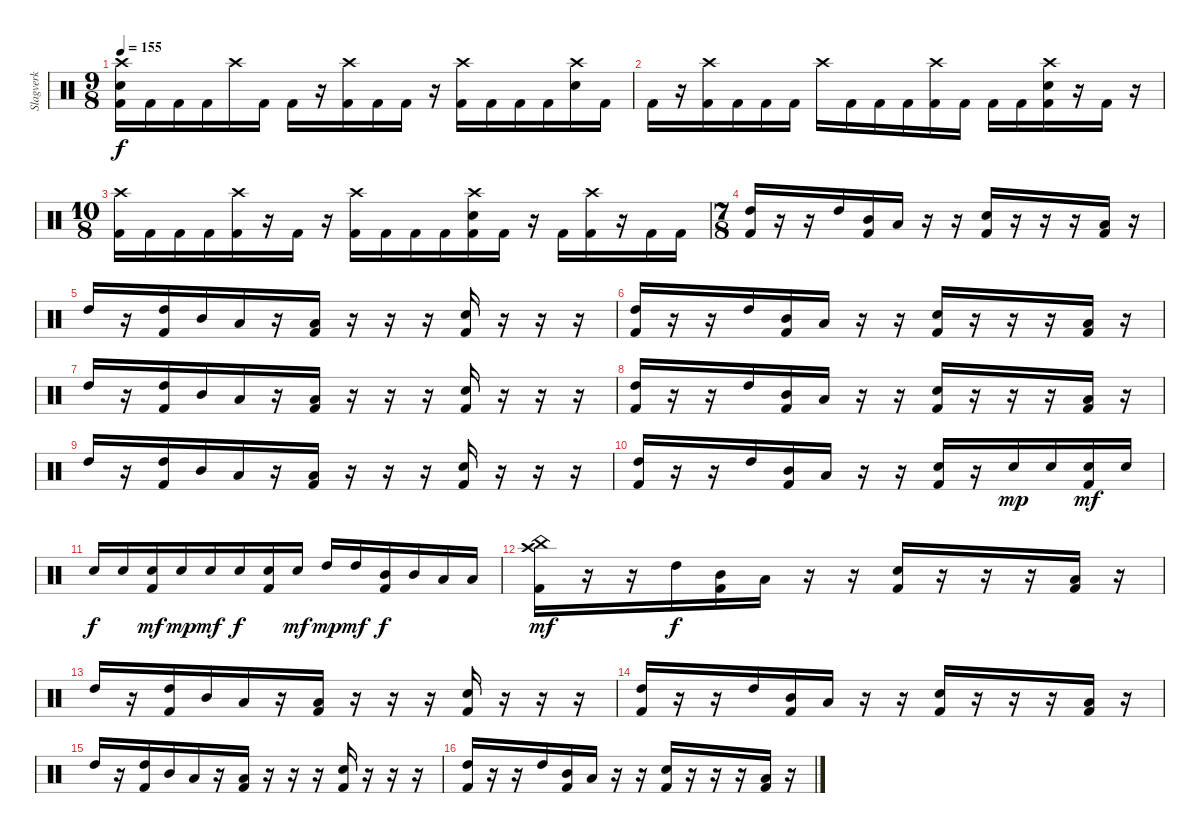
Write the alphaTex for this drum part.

\track ("Slagverk" "Slagverk") {instrument percussion}
\staff {score}
\articulation defaults
\ts (9 8)
\tempo 155
\clef neutral
\ks c
("Kick (hit) 2" "Electric Snare (hit)" "Crash high (hit)").16{dy f} "Kick (hit) 2".16 "Kick (hit) 2".16 "Kick (hit) 2".16 "Crash high (hit)".16 "Kick (hit) 2".16 "Kick (hit) 2".16 r.16 ("Kick (hit) 2" "Crash high (hit)").16 "Kick (hit) 2".16 "Kick (hit) 2".16 r.16 ("Kick (hit) 2" "Crash high (hit)").16 "Kick (hit) 2".16 "Kick (hit) 2".16 "Kick (hit) 2".16 ("Electric Snare (hit)" "Crash high (hit)").16 "Kick (hit) 2".16 |
"Kick (hit) 2".16 r.16 ("Kick (hit) 2" "Crash high (hit)").16 "Kick (hit) 2".16 "Kick (hit) 2".16 "Kick (hit) 2".16 "Crash high (hit)".16 "Kick (hit) 2".16 "Kick (hit) 2".16 "Kick (hit) 2".16 ("Kick (hit) 2" "Crash high (hit)").16 "Kick (hit) 2".16 "Kick (hit) 2".16 "Kick (hit) 2".16 ("Kick (hit) 2" "Electric Snare (hit)" "Crash high (hit)").16 r.16 "Kick (hit) 2".16 r.16 |
\ts (10 8)
("Kick (hit) 2" "Crash high (hit)").16 "Kick (hit) 2".16 "Kick (hit) 2".16 "Kick (hit) 2".16 ("Kick (hit) 2" "Crash high (hit)").16 r.16 "Kick (hit) 2".16 r.16 ("Kick (hit) 2" "Crash high (hit)").16 "Kick (hit) 2".16 "Kick (hit) 2".16 "Kick (hit) 2".16 ("Kick (hit) 2" "Electric Snare (hit)" "Crash high (hit)").16 "Kick (hit) 2".16 r.16 "Kick (hit) 2".16 ("Kick (hit) 2" "Crash high (hit)").16 r.16 "Kick (hit) 2".16 "Kick (hit) 2".16 |
\ts (7 8)
("Kick (hit) 2" "High Tom (hit)").16 r.16 r.16 "High Tom (hit)".16 ("Kick (hit) 2" "Mid Tom (hit)").16 "Low Tom (hit)".16 r.16 r.16 ("Kick (hit) 2" "Electric Snare (hit)").16 r.16 r.16 r.16 ("Kick (hit) 2" "Low Tom (hit)").16 r.16 |
"High Tom (hit)".16 r.16 ("Kick (hit) 2" "High Tom (hit)").16 "Mid Tom (hit)".16 "Low Tom (hit)".16 r.16 ("Kick (hit) 2" "Low Tom (hit)").16 r.16 r.16 r.16 ("Kick (hit) 2" "Electric Snare (hit)").16 r.16 r.16 r.16 |
("Kick (hit) 2" "High Tom (hit)").16 r.16 r.16 "High Tom (hit)".16 ("Kick (hit) 2" "Mid Tom (hit)").16 "Low Tom (hit)".16 r.16 r.16 ("Kick (hit) 2" "Electric Snare (hit)").16 r.16 r.16 r.16 ("Kick (hit) 2" "Low Tom (hit)").16 r.16 |
"High Tom (hit)".16 r.16 ("Kick (hit) 2" "High Tom (hit)").16 "Mid Tom (hit)".16 "Low Tom (hit)".16 r.16 ("Kick (hit) 2" "Low Tom (hit)").16 r.16 r.16 r.16 ("Kick (hit) 2" "Electric Snare (hit)").16 r.16 r.16 r.16 |
("Kick (hit) 2" "High Tom (hit)").16 r.16 r.16 "High Tom (hit)".16 ("Kick (hit) 2" "Mid Tom (hit)").16 "Low Tom (hit)".16 r.16 r.16 ("Kick (hit) 2" "Electric Snare (hit)").16 r.16 r.16 r.16 ("Kick (hit) 2" "Low Tom (hit)").16 r.16 |
"High Tom (hit)".16 r.16 ("Kick (hit) 2" "High Tom (hit)").16 "Mid Tom (hit)".16 "Low Tom (hit)".16 r.16 ("Kick (hit) 2" "Low Tom (hit)").16 r.16 r.16 r.16 ("Kick (hit) 2" "Electric Snare (hit)").16 r.16 r.16 r.16 |
("Kick (hit) 2" "High Tom (hit)").16 r.16 r.16 "High Tom (hit)".16 ("Kick (hit) 2" "Mid Tom (hit)").16 "Low Tom (hit)".16 r.16 r.16 ("Kick (hit) 2" "Electric Snare (hit)").16 r.16 "Electric Snare (hit)".16{dy mp} "Electric Snare (hit)".16 ("Kick (hit) 2" "Electric Snare (hit)").16{dy mf} "Electric Snare (hit)".16 |
"Electric Snare (hit)".16{dy f} "Electric Snare (hit)".16 ("Kick (hit) 2" "Electric Snare (hit)").16{dy mf} "Electric Snare (hit)".16{dy mp} "Electric Snare (hit)".16{dy mf} "Electric Snare (hit)".16{dy f} ("Kick (hit) 2" "Electric Snare (hit)").16 "Electric Snare (hit)".16{dy mf} "High Tom (hit)".16{dy mp} "High Tom (hit)".16{dy mf} ("Kick (hit) 2" "Mid Tom (hit)").16{dy f} "Mid Tom (hit)".16 "Low Tom (hit)".16 "Low Tom (hit)".16 |
("Kick (hit) 2" "China (hit)" "Crash high (hit)").16{dy mf} r.16 r.16 "High Tom (hit)".16{dy f} ("Kick (hit) 2" "Mid Tom (hit)").16 "Low Tom (hit)".16 r.16 r.16 ("Kick (hit) 2" "Electric Snare (hit)").16 r.16 r.16 r.16 ("Kick (hit) 2" "Low Tom (hit)").16 r.16 |
"High Tom (hit)".16 r.16 ("Kick (hit) 2" "High Tom (hit)").16 "Mid Tom (hit)".16 "Low Tom (hit)".16 r.16 ("Kick (hit) 2" "Low Tom (hit)").16 r.16 r.16 r.16 ("Kick (hit) 2" "Electric Snare (hit)").16 r.16 r.16 r.16 |
("Kick (hit) 2" "High Tom (hit)").16 r.16 r.16 "High Tom (hit)".16 ("Kick (hit) 2" "Mid Tom (hit)").16 "Low Tom (hit)".16 r.16 r.16 ("Kick (hit) 2" "Electric Snare (hit)").16 r.16 r.16 r.16 ("Kick (hit) 2" "Low Tom (hit)").16 r.16 |
"High Tom (hit)".16 r.16 ("Kick (hit) 2" "High Tom (hit)").16 "Mid Tom (hit)".16 "Low Tom (hit)".16 r.16 ("Kick (hit) 2" "Low Tom (hit)").16 r.16 r.16 r.16 ("Kick (hit) 2" "Electric Snare (hit)").16 r.16 r.16 r.16 |
("Kick (hit) 2" "High Tom (hit)").16 r.16 r.16 "High Tom (hit)".16 ("Kick (hit) 2" "Mid Tom (hit)").16 "Low Tom (hit)".16 r.16 r.16 ("Kick (hit) 2" "Electric Snare (hit)").16 r.16 r.16 r.16 ("Kick (hit) 2" "Low Tom (hit)").16 r.16
